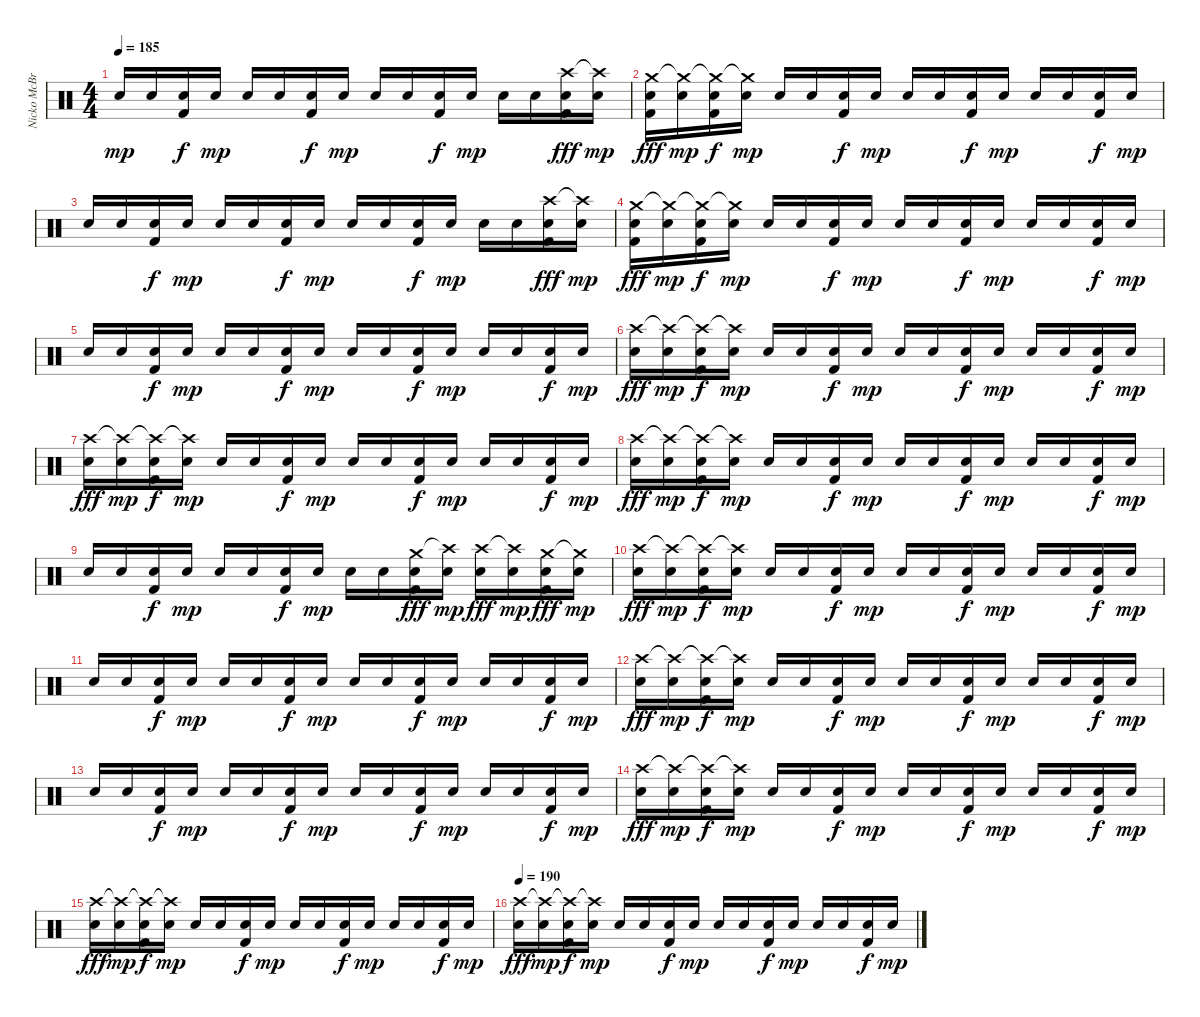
\track ("Nicko McBrain" "Nicko McBr") {instrument percussion}
\staff {score}
\articulation defaults
\ts (4 4)
\tempo 185
\clef neutral
\ks c "Snare (hit) 2".16{dy mp} "Snare (hit) 2".16
("Snare (hit) 2" "Kick (hit) 2").16{dy f} "Snare (hit) 2".16{dy mp} "Snare (hit) 2".16 "Snare (hit) 2".16 ("Snare (hit) 2" "Kick (hit) 2").16{dy f} "Snare (hit) 2".16{dy mp} "Snare (hit) 2".16 "Snare (hit) 2".16 ("Snare (hit) 2" "Kick (hit) 2").16{dy f} "Snare (hit) 2".16{dy mp} "Snare (hit) 2".16 "Snare (hit) 2".16 ("Snare (hit) 2" "Crash high (hit)" "Kick (hit) 2").16{dy fff} ("Snare (hit) 2" "Crash high (hit)"{t}).16{dy mp} |
("Snare (hit) 2" "Crash medium (hit)" "Kick (hit) 2").16{dy fff} ("Snare (hit) 2" "Crash medium (hit)"{t}).16{dy mp} ("Snare (hit) 2" "Crash medium (hit)"{t} "Kick (hit) 2").16{dy f} ("Snare (hit) 2" "Crash medium (hit)"{t}).16{dy mp} "Snare (hit) 2".16 "Snare (hit) 2".16 ("Snare (hit) 2" "Kick (hit) 2").16{dy f} "Snare (hit) 2".16{dy mp} "Snare (hit) 2".16 "Snare (hit) 2".16 ("Snare (hit) 2" "Kick (hit) 2").16{dy f} "Snare (hit) 2".16{dy mp} "Snare (hit) 2".16 "Snare (hit) 2".16 ("Snare (hit) 2" "Kick (hit) 2").16{dy f} "Snare (hit) 2".16{dy mp} |
"Snare (hit) 2".16 "Snare (hit) 2".16 ("Snare (hit) 2" "Kick (hit) 2").16{dy f} "Snare (hit) 2".16{dy mp} "Snare (hit) 2".16 "Snare (hit) 2".16 ("Snare (hit) 2" "Kick (hit) 2").16{dy f} "Snare (hit) 2".16{dy mp} "Snare (hit) 2".16 "Snare (hit) 2".16 ("Snare (hit) 2" "Kick (hit) 2").16{dy f} "Snare (hit) 2".16{dy mp} "Snare (hit) 2".16 "Snare (hit) 2".16 ("Snare (hit) 2" "Crash high (hit)" "Kick (hit) 2").16{dy fff} ("Snare (hit) 2" "Crash high (hit)"{t}).16{dy mp} |
("Snare (hit) 2" "Crash medium (hit)" "Kick (hit) 2").16{dy fff} ("Snare (hit) 2" "Crash medium (hit)"{t}).16{dy mp} ("Snare (hit) 2" "Crash medium (hit)"{t} "Kick (hit) 2").16{dy f} ("Snare (hit) 2" "Crash medium (hit)"{t}).16{dy mp} "Snare (hit) 2".16 "Snare (hit) 2".16 ("Snare (hit) 2" "Kick (hit) 2").16{dy f} "Snare (hit) 2".16{dy mp} "Snare (hit) 2".16 "Snare (hit) 2".16 ("Snare (hit) 2" "Kick (hit) 2").16{dy f} "Snare (hit) 2".16{dy mp} "Snare (hit) 2".16 "Snare (hit) 2".16 ("Snare (hit) 2" "Kick (hit) 2").16{dy f} "Snare (hit) 2".16{dy mp} |
"Snare (hit) 2".16 "Snare (hit) 2".16 ("Snare (hit) 2" "Kick (hit) 2").16{dy f} "Snare (hit) 2".16{dy mp} "Snare (hit) 2".16 "Snare (hit) 2".16 ("Snare (hit) 2" "Kick (hit) 2").16{dy f} "Snare (hit) 2".16{dy mp} "Snare (hit) 2".16 "Snare (hit) 2".16 ("Snare (hit) 2" "Kick (hit) 2").16{dy f} "Snare (hit) 2".16{dy mp} "Snare (hit) 2".16 "Snare (hit) 2".16 ("Snare (hit) 2" "Kick (hit) 2").16{dy f} "Snare (hit) 2".16{dy mp} |
("Snare (hit) 2" "Crash high (hit)").16{dy fff} ("Snare (hit) 2" "Crash high (hit)"{t}).16{dy mp} ("Snare (hit) 2" "Crash high (hit)"{t} "Kick (hit) 2").16{dy f} ("Snare (hit) 2" "Crash high (hit)"{t}).16{dy mp} "Snare (hit) 2".16 "Snare (hit) 2".16 ("Snare (hit) 2" "Kick (hit) 2").16{dy f} "Snare (hit) 2".16{dy mp} "Snare (hit) 2".16 "Snare (hit) 2".16 ("Snare (hit) 2" "Kick (hit) 2").16{dy f} "Snare (hit) 2".16{dy mp} "Snare (hit) 2".16 "Snare (hit) 2".16 ("Snare (hit) 2" "Kick (hit) 2").16{dy f} "Snare (hit) 2".16{dy mp} |
("Snare (hit) 2" "Crash high (hit)").16{dy fff} ("Snare (hit) 2" "Crash high (hit)"{t}).16{dy mp} ("Snare (hit) 2" "Crash high (hit)"{t} "Kick (hit) 2").16{dy f} ("Snare (hit) 2" "Crash high (hit)"{t}).16{dy mp} "Snare (hit) 2".16 "Snare (hit) 2".16 ("Snare (hit) 2" "Kick (hit) 2").16{dy f} "Snare (hit) 2".16{dy mp} "Snare (hit) 2".16 "Snare (hit) 2".16 ("Snare (hit) 2" "Kick (hit) 2").16{dy f} "Snare (hit) 2".16{dy mp} "Snare (hit) 2".16 "Snare (hit) 2".16 ("Snare (hit) 2" "Kick (hit) 2").16{dy f} "Snare (hit) 2".16{dy mp} |
("Snare (hit) 2" "Crash high (hit)").16{dy fff} ("Snare (hit) 2" "Crash high (hit)"{t}).16{dy mp} ("Snare (hit) 2" "Crash high (hit)"{t} "Kick (hit) 2").16{dy f} ("Snare (hit) 2" "Crash high (hit)"{t}).16{dy mp} "Snare (hit) 2".16 "Snare (hit) 2".16 ("Snare (hit) 2" "Kick (hit) 2").16{dy f} "Snare (hit) 2".16{dy mp} "Snare (hit) 2".16 "Snare (hit) 2".16 ("Snare (hit) 2" "Kick (hit) 2").16{dy f} "Snare (hit) 2".16{dy mp} "Snare (hit) 2".16 "Snare (hit) 2".16 ("Snare (hit) 2" "Kick (hit) 2").16{dy f} "Snare (hit) 2".16{dy mp} |
"Snare (hit) 2".16 "Snare (hit) 2".16 ("Snare (hit) 2" "Kick (hit) 2").16{dy f} "Snare (hit) 2".16{dy mp} "Snare (hit) 2".16 "Snare (hit) 2".16 ("Snare (hit) 2" "Kick (hit) 2").16{dy f} "Snare (hit) 2".16{dy mp} "Snare (hit) 2".16 "Snare (hit) 2".16 ("Snare (hit) 2" "Crash medium (hit)" "Kick (hit) 2").16{dy fff} ("Snare (hit) 2" "Crash high (hit)"{t}).16{dy mp} ("Snare (hit) 2" "Crash high (hit)").16{dy fff} ("Snare (hit) 2" "Crash high (hit)"{t}).16{dy mp} ("Snare (hit) 2" "Crash medium (hit)" "Kick (hit) 2").16{dy fff} ("Snare (hit) 2" "Crash medium (hit)"{t}).16{dy mp} |
("Snare (hit) 2" "Crash high (hit)").16{dy fff} ("Snare (hit) 2" "Crash high (hit)"{t}).16{dy mp} ("Snare (hit) 2" "Crash high (hit)"{t} "Kick (hit) 2").16{dy f} ("Snare (hit) 2" "Crash high (hit)"{t}).16{dy mp} "Snare (hit) 2".16 "Snare (hit) 2".16 ("Snare (hit) 2" "Kick (hit) 2").16{dy f} "Snare (hit) 2".16{dy mp} "Snare (hit) 2".16 "Snare (hit) 2".16 ("Snare (hit) 2" "Kick (hit) 2").16{dy f} "Snare (hit) 2".16{dy mp} "Snare (hit) 2".16 "Snare (hit) 2".16 ("Snare (hit) 2" "Kick (hit) 2").16{dy f} "Snare (hit) 2".16{dy mp} |
"Snare (hit) 2".16 "Snare (hit) 2".16 ("Snare (hit) 2" "Kick (hit) 2").16{dy f} "Snare (hit) 2".16{dy mp} "Snare (hit) 2".16 "Snare (hit) 2".16 ("Snare (hit) 2" "Kick (hit) 2").16{dy f} "Snare (hit) 2".16{dy mp} "Snare (hit) 2".16 "Snare (hit) 2".16 ("Snare (hit) 2" "Kick (hit) 2").16{dy f} "Snare (hit) 2".16{dy mp} "Snare (hit) 2".16 "Snare (hit) 2".16 ("Snare (hit) 2" "Kick (hit) 2").16{dy f} "Snare (hit) 2".16{dy mp} |
("Snare (hit) 2" "Crash high (hit)").16{dy fff} ("Snare (hit) 2" "Crash high (hit)"{t}).16{dy mp} ("Snare (hit) 2" "Crash high (hit)"{t} "Kick (hit) 2").16{dy f} ("Snare (hit) 2" "Crash high (hit)"{t}).16{dy mp} "Snare (hit) 2".16 "Snare (hit) 2".16 ("Snare (hit) 2" "Kick (hit) 2").16{dy f} "Snare (hit) 2".16{dy mp} "Snare (hit) 2".16 "Snare (hit) 2".16 ("Snare (hit) 2" "Kick (hit) 2").16{dy f} "Snare (hit) 2".16{dy mp} "Snare (hit) 2".16 "Snare (hit) 2".16 ("Snare (hit) 2" "Kick (hit) 2").16{dy f} "Snare (hit) 2".16{dy mp} |
"Snare (hit) 2".16 "Snare (hit) 2".16 ("Snare (hit) 2" "Kick (hit) 2").16{dy f} "Snare (hit) 2".16{dy mp} "Snare (hit) 2".16 "Snare (hit) 2".16 ("Snare (hit) 2" "Kick (hit) 2").16{dy f} "Snare (hit) 2".16{dy mp} "Snare (hit) 2".16 "Snare (hit) 2".16 ("Snare (hit) 2" "Kick (hit) 2").16{dy f} "Snare (hit) 2".16{dy mp} "Snare (hit) 2".16 "Snare (hit) 2".16 ("Snare (hit) 2" "Kick (hit) 2").16{dy f} "Snare (hit) 2".16{dy mp} |
("Snare (hit) 2" "Crash high (hit)").16{dy fff} ("Snare (hit) 2" "Crash high (hit)"{t}).16{dy mp} ("Snare (hit) 2" "Crash high (hit)"{t} "Kick (hit) 2").16{dy f} ("Snare (hit) 2" "Crash high (hit)"{t}).16{dy mp} "Snare (hit) 2".16 "Snare (hit) 2".16 ("Snare (hit) 2" "Kick (hit) 2").16{dy f} "Snare (hit) 2".16{dy mp} "Snare (hit) 2".16 "Snare (hit) 2".16 ("Snare (hit) 2" "Kick (hit) 2").16{dy f} "Snare (hit) 2".16{dy mp} "Snare (hit) 2".16 "Snare (hit) 2".16 ("Snare (hit) 2" "Kick (hit) 2").16{dy f} "Snare (hit) 2".16{dy mp} |
("Snare (hit) 2" "Crash high (hit)").16{dy fff} ("Snare (hit) 2" "Crash high (hit)"{t}).16{dy mp} ("Snare (hit) 2" "Crash high (hit)"{t} "Kick (hit) 2").16{dy f} ("Snare (hit) 2" "Crash high (hit)"{t}).16{dy mp} "Snare (hit) 2".16 "Snare (hit) 2".16 ("Snare (hit) 2" "Kick (hit) 2").16{dy f} "Snare (hit) 2".16{dy mp} "Snare (hit) 2".16 "Snare (hit) 2".16 ("Snare (hit) 2" "Kick (hit) 2").16{dy f} "Snare (hit) 2".16{dy mp} "Snare (hit) 2".16 "Snare (hit) 2".16 ("Snare (hit) 2" "Kick (hit) 2").16{dy f} "Snare (hit) 2".16{dy mp} |
\tempo 190
("Snare (hit) 2" "Crash high (hit)").16{dy fff} ("Snare (hit) 2" "Crash high (hit)"{t}).16{dy mp} ("Snare (hit) 2" "Crash high (hit)"{t} "Kick (hit) 2").16{dy f} ("Snare (hit) 2" "Crash high (hit)"{t}).16{dy mp} "Snare (hit) 2".16 "Snare (hit) 2".16 ("Snare (hit) 2" "Kick (hit) 2").16{dy f} "Snare (hit) 2".16{dy mp} "Snare (hit) 2".16 "Snare (hit) 2".16 ("Snare (hit) 2" "Kick (hit) 2").16{dy f} "Snare (hit) 2".16{dy mp} "Snare (hit) 2".16 "Snare (hit) 2".16 ("Snare (hit) 2" "Kick (hit) 2").16{dy f} "Snare (hit) 2".16{dy mp}
